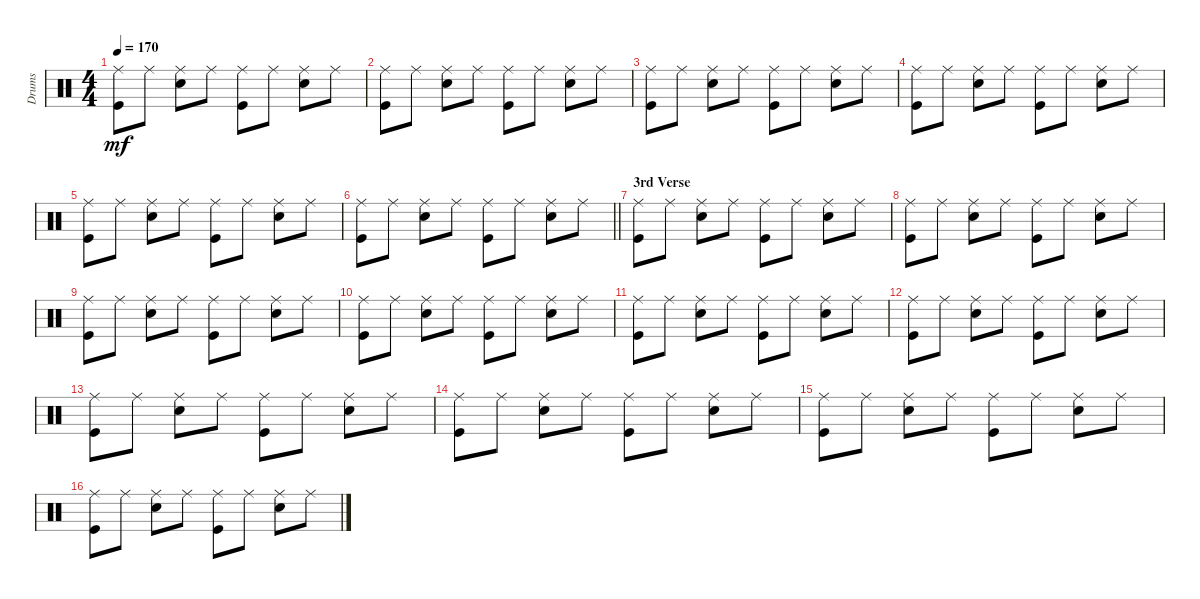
\track ("Drums" "Drums") {instrument percussion}
\staff {score}
\articulation defaults
\ts (4 4)
\tempo 170
\clef neutral
\ks c
("Ride (middle)" "Kick (hit)").8{dy mf} "Ride (middle)".8 ("Ride (middle)" "Snare (hit) 2").8 "Ride (middle)".8 ("Ride (middle)" "Kick (hit)").8 "Ride (middle)".8 ("Ride (middle)" "Snare (hit) 2").8 "Ride (middle)".8 |
("Ride (middle)" "Kick (hit)").8 "Ride (middle)".8 ("Ride (middle)" "Snare (hit) 2").8 "Ride (middle)".8 ("Ride (middle)" "Kick (hit)").8 "Ride (middle)".8 ("Ride (middle)" "Snare (hit) 2").8 "Ride (middle)".8 |
("Ride (middle)" "Kick (hit)").8 "Ride (middle)".8 ("Ride (middle)" "Snare (hit) 2").8 "Ride (middle)".8 ("Ride (middle)" "Kick (hit)").8 "Ride (middle)".8 ("Ride (middle)" "Snare (hit) 2").8 "Ride (middle)".8 |
("Ride (middle)" "Kick (hit)").8 "Ride (middle)".8 ("Ride (middle)" "Snare (hit) 2").8 "Ride (middle)".8 ("Ride (middle)" "Kick (hit)").8 "Ride (middle)".8 ("Ride (middle)" "Snare (hit) 2").8 "Ride (middle)".8 |
("Ride (middle)" "Kick (hit)").8 "Ride (middle)".8 ("Ride (middle)" "Snare (hit) 2").8 "Ride (middle)".8 ("Ride (middle)" "Kick (hit)").8 "Ride (middle)".8 ("Ride (middle)" "Snare (hit) 2").8 "Ride (middle)".8 |
\barLineRight lightlight
("Ride (middle)" "Kick (hit)").8 "Ride (middle)".8 ("Ride (middle)" "Snare (hit) 2").8 "Ride (middle)".8 ("Ride (middle)" "Kick (hit)").8 "Ride (middle)".8 ("Ride (middle)" "Snare (hit) 2").8 "Ride (middle)".8 |
\section ("" "3rd Verse")
("Ride (middle)" "Kick (hit)").8 "Ride (middle)".8 ("Ride (middle)" "Snare (hit) 2").8 "Ride (middle)".8 ("Ride (middle)" "Kick (hit)").8 "Ride (middle)".8 ("Ride (middle)" "Snare (hit) 2").8 "Ride (middle)".8 |
("Ride (middle)" "Kick (hit)").8 "Ride (middle)".8 ("Ride (middle)" "Snare (hit) 2").8 "Ride (middle)".8 ("Ride (middle)" "Kick (hit)").8 "Ride (middle)".8 ("Ride (middle)" "Snare (hit) 2").8 "Ride (middle)".8 |
("Ride (middle)" "Kick (hit)").8 "Ride (middle)".8 ("Ride (middle)" "Snare (hit) 2").8 "Ride (middle)".8 ("Ride (middle)" "Kick (hit)").8 "Ride (middle)".8 ("Ride (middle)" "Snare (hit) 2").8 "Ride (middle)".8 |
("Ride (middle)" "Kick (hit)").8 "Ride (middle)".8 ("Ride (middle)" "Snare (hit) 2").8 "Ride (middle)".8 ("Ride (middle)" "Kick (hit)").8 "Ride (middle)".8 ("Ride (middle)" "Snare (hit) 2").8 "Ride (middle)".8 |
("Ride (middle)" "Kick (hit)").8 "Ride (middle)".8 ("Ride (middle)" "Snare (hit) 2").8 "Ride (middle)".8 ("Ride (middle)" "Kick (hit)").8 "Ride (middle)".8 ("Ride (middle)" "Snare (hit) 2").8 "Ride (middle)".8 |
("Ride (middle)" "Kick (hit)").8 "Ride (middle)".8 ("Ride (middle)" "Snare (hit) 2").8 "Ride (middle)".8 ("Ride (middle)" "Kick (hit)").8 "Ride (middle)".8 ("Ride (middle)" "Snare (hit) 2").8 "Ride (middle)".8 |
("Ride (middle)" "Kick (hit)").8 "Ride (middle)".8 ("Ride (middle)" "Snare (hit) 2").8 "Ride (middle)".8 ("Ride (middle)" "Kick (hit)").8 "Ride (middle)".8 ("Ride (middle)" "Snare (hit) 2").8 "Ride (middle)".8 |
("Ride (middle)" "Kick (hit)").8 "Ride (middle)".8 ("Ride (middle)" "Snare (hit) 2").8 "Ride (middle)".8 ("Ride (middle)" "Kick (hit)").8 "Ride (middle)".8 ("Ride (middle)" "Snare (hit) 2").8 "Ride (middle)".8 |
("Ride (middle)" "Kick (hit)").8 "Ride (middle)".8 ("Ride (middle)" "Snare (hit) 2").8 "Ride (middle)".8 ("Ride (middle)" "Kick (hit)").8 "Ride (middle)".8 ("Ride (middle)" "Snare (hit) 2").8 "Ride (middle)".8 |
("Ride (middle)" "Kick (hit)").8 "Ride (middle)".8 ("Ride (middle)" "Snare (hit) 2").8 "Ride (middle)".8 ("Ride (middle)" "Kick (hit)").8 "Ride (middle)".8 ("Ride (middle)" "Snare (hit) 2").8 "Ride (middle)".8
